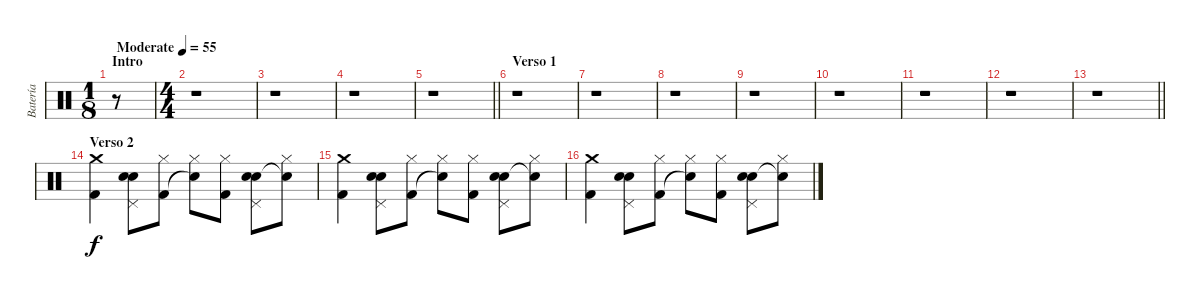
\track ("Batería" "Batería") {instrument percussion}
\staff {score}
\articulation defaults
\ts (1 8)
\section ("" "Intro")
\tempo (55 "Moderate")
\clef neutral
\ks c
r.8{dy f} |
\ts (4 4)
r.1 |
r.1 |
r.1 |
\barLineRight lightlight
r.1 |
\section ("" "Verso 1")
r.1 |
r.1 |
r.1 |
r.1 |
r.1 |
r.1 |
r.1 |
\barLineRight lightlight
r.1 |
\section ("" "Verso 2")
("Crash medium (hit)" "Kick (hit) 2").4 ("Electric Snare (hit)" "Snare (hit) 2" "Pedal Hi-Hat (hit)").8 ("Kick (hit) 2" "Hi-Hat (closed)").8 ("Snare (hit)"{t} "Hi-Hat (closed)").8 ("Kick (hit) 2" "Hi-Hat (closed)").8 ("Electric Snare (hit)" "Snare (hit) 2" "Pedal Hi-Hat (hit)").8 ("Snare (hit)"{t} "Hi-Hat (closed)").8 |
("Crash medium (hit)" "Kick (hit) 2").4 ("Electric Snare (hit)" "Snare (hit) 2" "Pedal Hi-Hat (hit)").8 ("Kick (hit) 2" "Hi-Hat (closed)").8 ("Snare (hit)"{t} "Hi-Hat (closed)").8 ("Kick (hit) 2" "Hi-Hat (closed)").8 ("Electric Snare (hit)" "Snare (hit) 2" "Pedal Hi-Hat (hit)").8 ("Snare (hit)"{t} "Hi-Hat (closed)").8 |
("Crash medium (hit)" "Kick (hit) 2").4 ("Electric Snare (hit)" "Snare (hit) 2" "Pedal Hi-Hat (hit)").8 ("Kick (hit) 2" "Hi-Hat (closed)").8 ("Snare (hit)"{t} "Hi-Hat (closed)").8 ("Kick (hit) 2" "Hi-Hat (closed)").8 ("Electric Snare (hit)" "Snare (hit) 2" "Pedal Hi-Hat (hit)").8 ("Snare (hit)"{t} "Hi-Hat (closed)").8
